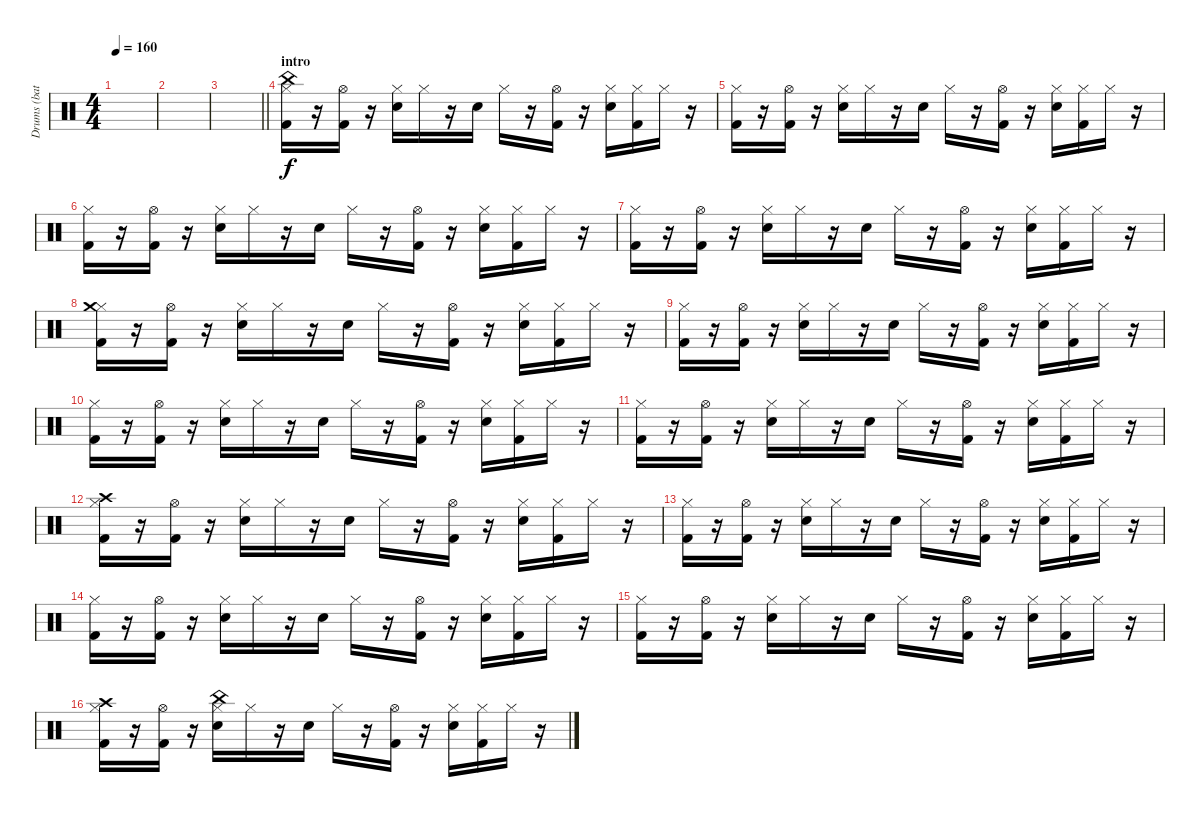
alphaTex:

\track ("Drums (bateria)" "Drums (bat") {instrument percussion}
\staff {score}
\articulation defaults
\ts (4 4)
\tempo 160
\clef neutral
\ks c
|
|
\barLineRight lightlight
|
\section ("" "intro")
("Hi-Hat (closed)" "Kick (hit) 2" "China (hit)").16 r.16 ("Hi-Hat (open)" "Kick (hit) 2").16 r.16 ("Hi-Hat (closed)" "Snare (hit) 2").16 "Hi-Hat (closed)".16 r.16 "Snare (hit) 2".16 "Hi-Hat (closed)".16 r.16 ("Hi-Hat (open)" "Kick (hit) 2").16 r.16 ("Hi-Hat (closed)" "Snare (hit) 2").16 ("Hi-Hat (closed)" "Kick (hit) 2").16 "Hi-Hat (closed)".16 r.16 |
("Hi-Hat (closed)" "Kick (hit) 2").16 r.16 ("Hi-Hat (open)" "Kick (hit) 2").16 r.16 ("Hi-Hat (closed)" "Snare (hit) 2").16 "Hi-Hat (closed)".16 r.16 "Snare (hit) 2".16 "Hi-Hat (closed)".16 r.16 ("Hi-Hat (open)" "Kick (hit) 2").16 r.16 ("Hi-Hat (closed)" "Snare (hit) 2").16 ("Hi-Hat (closed)" "Kick (hit) 2").16 "Hi-Hat (closed)".16 r.16 |
("Hi-Hat (closed)" "Kick (hit) 2").16 r.16 ("Hi-Hat (open)" "Kick (hit) 2").16 r.16 ("Hi-Hat (closed)" "Snare (hit) 2").16 "Hi-Hat (closed)".16 r.16 "Snare (hit) 2".16 "Hi-Hat (closed)".16 r.16 ("Hi-Hat (open)" "Kick (hit) 2").16 r.16 ("Hi-Hat (closed)" "Snare (hit) 2").16 ("Hi-Hat (closed)" "Kick (hit) 2").16 "Hi-Hat (closed)".16 r.16 |
("Hi-Hat (closed)" "Kick (hit) 2").16 r.16 ("Hi-Hat (open)" "Kick (hit) 2").16 r.16 ("Hi-Hat (closed)" "Snare (hit) 2").16 "Hi-Hat (closed)".16 r.16 "Snare (hit) 2".16 "Hi-Hat (closed)".16 r.16 ("Hi-Hat (open)" "Kick (hit) 2").16 r.16 ("Hi-Hat (closed)" "Snare (hit) 2").16 ("Hi-Hat (closed)" "Kick (hit) 2").16 "Hi-Hat (closed)".16 r.16 |
("Hi-Hat (closed)" "Kick (hit) 2" "Crash medium (hit)").16 r.16 ("Hi-Hat (open)" "Kick (hit) 2").16 r.16 ("Hi-Hat (closed)" "Snare (hit) 2").16 "Hi-Hat (closed)".16 r.16 "Snare (hit) 2".16 "Hi-Hat (closed)".16 r.16 ("Hi-Hat (open)" "Kick (hit) 2").16 r.16 ("Hi-Hat (closed)" "Snare (hit) 2").16 ("Hi-Hat (closed)" "Kick (hit) 2").16 "Hi-Hat (closed)".16 r.16 |
("Hi-Hat (closed)" "Kick (hit) 2").16 r.16 ("Hi-Hat (open)" "Kick (hit) 2").16 r.16 ("Hi-Hat (closed)" "Snare (hit) 2").16 "Hi-Hat (closed)".16 r.16 "Snare (hit) 2".16 "Hi-Hat (closed)".16 r.16 ("Hi-Hat (open)" "Kick (hit) 2").16 r.16 ("Hi-Hat (closed)" "Snare (hit) 2").16 ("Hi-Hat (closed)" "Kick (hit) 2").16 "Hi-Hat (closed)".16 r.16 |
("Hi-Hat (closed)" "Kick (hit) 2").16 r.16 ("Hi-Hat (open)" "Kick (hit) 2").16 r.16 ("Hi-Hat (closed)" "Snare (hit) 2").16 "Hi-Hat (closed)".16 r.16 "Snare (hit) 2".16 "Hi-Hat (closed)".16 r.16 ("Hi-Hat (open)" "Kick (hit) 2").16 r.16 ("Hi-Hat (closed)" "Snare (hit) 2").16 ("Hi-Hat (closed)" "Kick (hit) 2").16 "Hi-Hat (closed)".16 r.16 |
("Hi-Hat (closed)" "Kick (hit) 2").16 r.16 ("Hi-Hat (open)" "Kick (hit) 2").16 r.16 ("Hi-Hat (closed)" "Snare (hit) 2").16 "Hi-Hat (closed)".16 r.16 "Snare (hit) 2".16 "Hi-Hat (closed)".16 r.16 ("Hi-Hat (open)" "Kick (hit) 2").16 r.16 ("Hi-Hat (closed)" "Snare (hit) 2").16 ("Hi-Hat (closed)" "Kick (hit) 2").16 "Hi-Hat (closed)".16 r.16 |
("Hi-Hat (closed)" "Kick (hit) 2" "Crash high (hit)").16 r.16 ("Hi-Hat (open)" "Kick (hit) 2").16 r.16 ("Hi-Hat (closed)" "Snare (hit) 2").16 "Hi-Hat (closed)".16 r.16 "Snare (hit) 2".16 "Hi-Hat (closed)".16 r.16 ("Hi-Hat (open)" "Kick (hit) 2").16 r.16 ("Hi-Hat (closed)" "Snare (hit) 2").16 ("Hi-Hat (closed)" "Kick (hit) 2").16 "Hi-Hat (closed)".16 r.16 |
("Hi-Hat (closed)" "Kick (hit) 2").16 r.16 ("Hi-Hat (open)" "Kick (hit) 2").16 r.16 ("Hi-Hat (closed)" "Snare (hit) 2").16 "Hi-Hat (closed)".16 r.16 "Snare (hit) 2".16 "Hi-Hat (closed)".16 r.16 ("Hi-Hat (open)" "Kick (hit) 2").16 r.16 ("Hi-Hat (closed)" "Snare (hit) 2").16 ("Hi-Hat (closed)" "Kick (hit) 2").16 "Hi-Hat (closed)".16 r.16 |
("Hi-Hat (closed)" "Kick (hit) 2").16 r.16 ("Hi-Hat (open)" "Kick (hit) 2").16 r.16 ("Hi-Hat (closed)" "Snare (hit) 2").16 "Hi-Hat (closed)".16 r.16 "Snare (hit) 2".16 "Hi-Hat (closed)".16 r.16 ("Hi-Hat (open)" "Kick (hit) 2").16 r.16 ("Hi-Hat (closed)" "Snare (hit) 2").16 ("Hi-Hat (closed)" "Kick (hit) 2").16 "Hi-Hat (closed)".16 r.16 |
("Hi-Hat (closed)" "Kick (hit) 2").16 r.16 ("Hi-Hat (open)" "Kick (hit) 2").16 r.16 ("Hi-Hat (closed)" "Snare (hit) 2").16 "Hi-Hat (closed)".16 r.16 "Snare (hit) 2".16 "Hi-Hat (closed)".16 r.16 ("Hi-Hat (open)" "Kick (hit) 2").16 r.16 ("Hi-Hat (closed)" "Snare (hit) 2").16 ("Hi-Hat (closed)" "Kick (hit) 2").16 "Hi-Hat (closed)".16 r.16 |
("Hi-Hat (closed)" "Kick (hit) 2" "Crash high (hit)").16 r.16 ("Hi-Hat (open)" "Kick (hit) 2").16 r.16 ("Hi-Hat (closed)" "Snare (hit) 2" "China (hit)").16 "Hi-Hat (closed)".16 r.16 "Snare (hit) 2".16 "Hi-Hat (closed)".16 r.16 ("Hi-Hat (open)" "Kick (hit) 2").16 r.16 ("Hi-Hat (closed)" "Snare (hit) 2").16 ("Hi-Hat (closed)" "Kick (hit) 2").16 "Hi-Hat (closed)".16 r.16
